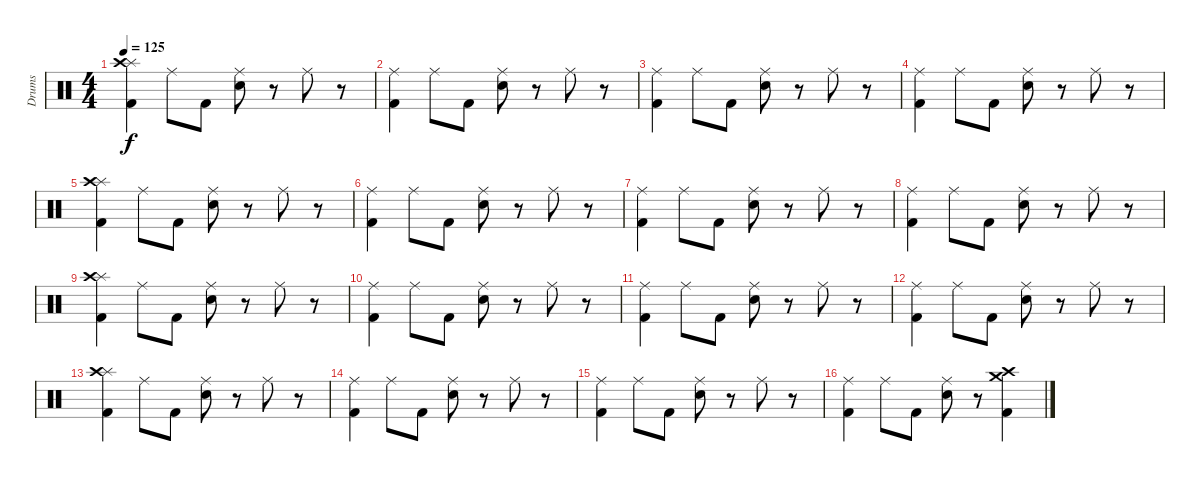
\track ("Drums" "Drums") {instrument percussion}
\staff {score}
\articulation defaults
\ts (4 4)
\tempo 125
\clef neutral
\ks c
("Splash (hit)" "Crash high (hit)" "Kick (hit) 2").4{dy f} "Ride (middle)".8 "Kick (hit) 2".8 ("Ride (middle)" "Snare (hit) 2").8 r.8 "Ride (middle)".8 r.8 |
("Ride (middle)" "Kick (hit) 2").4 "Ride (middle)".8 "Kick (hit) 2".8 ("Ride (middle)" "Snare (hit) 2").8 r.8 "Ride (middle)".8 r.8 |
("Ride (middle)" "Kick (hit) 2").4 "Ride (middle)".8 "Kick (hit) 2".8 ("Ride (middle)" "Snare (hit) 2").8 r.8 "Ride (middle)".8 r.8 |
("Ride (middle)" "Kick (hit) 2").4 "Ride (middle)".8 "Kick (hit) 2".8 ("Ride (middle)" "Snare (hit) 2").8 r.8 "Ride (middle)".8 r.8 |
("Splash (hit)" "Crash high (hit)" "Kick (hit) 2").4 "Ride (middle)".8 "Kick (hit) 2".8 ("Ride (middle)" "Snare (hit) 2").8 r.8 "Ride (middle)".8 r.8 |
("Ride (middle)" "Kick (hit) 2").4 "Ride (middle)".8 "Kick (hit) 2".8 ("Ride (middle)" "Snare (hit) 2").8 r.8 "Ride (middle)".8 r.8 |
("Ride (middle)" "Kick (hit) 2").4 "Ride (middle)".8 "Kick (hit) 2".8 ("Ride (middle)" "Snare (hit) 2").8 r.8 "Ride (middle)".8 r.8 |
("Ride (middle)" "Kick (hit) 2").4 "Ride (middle)".8 "Kick (hit) 2".8 ("Ride (middle)" "Snare (hit) 2").8 r.8 "Ride (middle)".8 r.8 |
("Splash (hit)" "Crash high (hit)" "Kick (hit) 2").4 "Ride (middle)".8 "Kick (hit) 2".8 ("Ride (middle)" "Snare (hit) 2").8 r.8 "Ride (middle)".8 r.8 |
("Ride (middle)" "Kick (hit) 2").4 "Ride (middle)".8 "Kick (hit) 2".8 ("Ride (middle)" "Snare (hit) 2").8 r.8 "Ride (middle)".8 r.8 |
("Ride (middle)" "Kick (hit) 2").4 "Ride (middle)".8 "Kick (hit) 2".8 ("Ride (middle)" "Snare (hit) 2").8 r.8 "Ride (middle)".8 r.8 |
("Ride (middle)" "Kick (hit) 2").4 "Ride (middle)".8 "Kick (hit) 2".8 ("Ride (middle)" "Snare (hit) 2").8 r.8 "Ride (middle)".8 r.8 |
("Splash (hit)" "Crash high (hit)" "Kick (hit) 2").4 "Ride (middle)".8 "Kick (hit) 2".8 ("Ride (middle)" "Snare (hit) 2").8 r.8 "Ride (middle)".8 r.8 |
("Ride (middle)" "Kick (hit) 2").4 "Ride (middle)".8 "Kick (hit) 2".8 ("Ride (middle)" "Snare (hit) 2").8 r.8 "Ride (middle)".8 r.8 |
("Ride (middle)" "Kick (hit) 2").4 "Ride (middle)".8 "Kick (hit) 2".8 ("Ride (middle)" "Snare (hit) 2").8 r.8 "Ride (middle)".8 r.8 |
("Ride (middle)" "Kick (hit) 2").4 "Ride (middle)".8 "Kick (hit) 2".8 ("Ride (middle)" "Snare (hit) 2").8 r.8 ("Crash medium (hit)" "Crash high (hit)" "Kick (hit) 2").4
